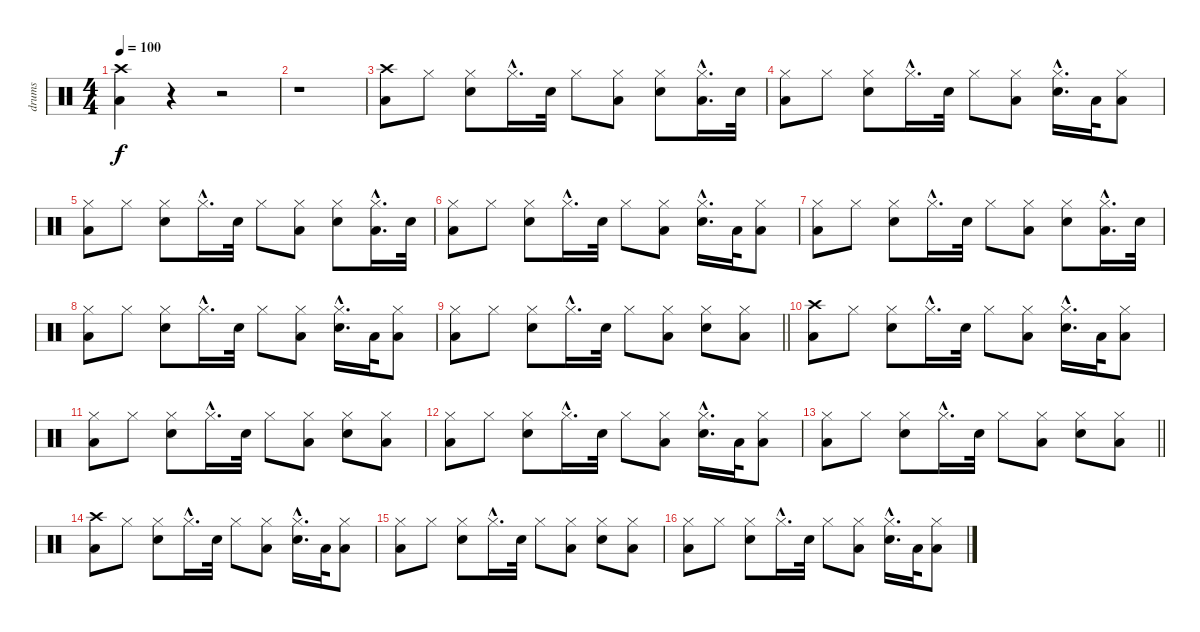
\track ("drums" "drums") {instrument percussion}
\staff {score}
\articulation defaults
\ts (4 4)
\tempo 100
\clef neutral
\ks c
("Crash high (hit)" "Low Floor Tom (hit)").4{dy f} r.4 r.2 |
r.1 |
("Crash high (hit)" "Low Floor Tom (hit)").8 "Hi-Hat (closed)".8 ("Hi-Hat (closed)" "Electric Snare (hit)").8 "Hi-Hat (closed)"{hac}.16{d} "Electric Snare (hit)".32 "Hi-Hat (closed)".8 ("Hi-Hat (closed)" "Low Floor Tom (hit)").8 ("Hi-Hat (closed)" "Electric Snare (hit)").8 ("Hi-Hat (closed)"{hac} "Low Floor Tom (hit)"{hac}).16{d} "Electric Snare (hit)".32 |
("Hi-Hat (closed)" "Low Floor Tom (hit)").8 "Hi-Hat (closed)".8 ("Hi-Hat (closed)" "Electric Snare (hit)").8 "Hi-Hat (closed)"{hac}.16{d} "Electric Snare (hit)".32 "Hi-Hat (closed)".8 ("Hi-Hat (closed)" "Low Floor Tom (hit)").8 ("Hi-Hat (closed)"{hac} "Electric Snare (hit)"{hac}).16{d} "Low Floor Tom (hit)".32 ("Hi-Hat (closed)" "Low Floor Tom (hit)").8 |
("Hi-Hat (closed)" "Low Floor Tom (hit)").8 "Hi-Hat (closed)".8 ("Hi-Hat (closed)" "Electric Snare (hit)").8 "Hi-Hat (closed)"{hac}.16{d} "Electric Snare (hit)".32 "Hi-Hat (closed)".8 ("Hi-Hat (closed)" "Low Floor Tom (hit)").8 ("Hi-Hat (closed)" "Electric Snare (hit)").8 ("Hi-Hat (closed)"{hac} "Low Floor Tom (hit)"{hac}).16{d} "Electric Snare (hit)".32 |
("Hi-Hat (closed)" "Low Floor Tom (hit)").8 "Hi-Hat (closed)".8 ("Hi-Hat (closed)" "Electric Snare (hit)").8 "Hi-Hat (closed)"{hac}.16{d} "Electric Snare (hit)".32 "Hi-Hat (closed)".8 ("Hi-Hat (closed)" "Low Floor Tom (hit)").8 ("Hi-Hat (closed)"{hac} "Electric Snare (hit)"{hac}).16{d} "Low Floor Tom (hit)".32 ("Hi-Hat (closed)" "Low Floor Tom (hit)").8 |
("Hi-Hat (closed)" "Low Floor Tom (hit)").8 "Hi-Hat (closed)".8 ("Hi-Hat (closed)" "Electric Snare (hit)").8 "Hi-Hat (closed)"{hac}.16{d} "Electric Snare (hit)".32 "Hi-Hat (closed)".8 ("Hi-Hat (closed)" "Low Floor Tom (hit)").8 ("Hi-Hat (closed)" "Electric Snare (hit)").8 ("Hi-Hat (closed)"{hac} "Low Floor Tom (hit)"{hac}).16{d} "Electric Snare (hit)".32 |
("Hi-Hat (closed)" "Low Floor Tom (hit)").8 "Hi-Hat (closed)".8 ("Hi-Hat (closed)" "Electric Snare (hit)").8 "Hi-Hat (closed)"{hac}.16{d} "Electric Snare (hit)".32 "Hi-Hat (closed)".8 ("Hi-Hat (closed)" "Low Floor Tom (hit)").8 ("Hi-Hat (closed)"{hac} "Electric Snare (hit)"{hac}).16{d} "Low Floor Tom (hit)".32 ("Hi-Hat (closed)" "Low Floor Tom (hit)").8 |
\barLineRight lightlight
("Hi-Hat (closed)" "Low Floor Tom (hit)").8 "Hi-Hat (closed)".8 ("Hi-Hat (closed)" "Electric Snare (hit)").8 "Hi-Hat (closed)"{hac}.16{d} "Electric Snare (hit)".32 "Hi-Hat (closed)".8 ("Hi-Hat (closed)" "Low Floor Tom (hit)").8 ("Hi-Hat (closed)" "Electric Snare (hit)").8 ("Hi-Hat (closed)" "Low Floor Tom (hit)").8 |
("Crash high (hit)" "Low Floor Tom (hit)").8 "Hi-Hat (closed)".8 ("Hi-Hat (closed)" "Electric Snare (hit)").8 "Hi-Hat (closed)"{hac}.16{d} "Electric Snare (hit)".32 "Hi-Hat (closed)".8 ("Hi-Hat (closed)" "Low Floor Tom (hit)").8 ("Hi-Hat (closed)"{hac} "Electric Snare (hit)"{hac}).16{d} "Low Floor Tom (hit)".32 ("Hi-Hat (closed)" "Low Floor Tom (hit)").8 |
("Hi-Hat (closed)" "Low Floor Tom (hit)").8 "Hi-Hat (closed)".8 ("Hi-Hat (closed)" "Electric Snare (hit)").8 "Hi-Hat (closed)"{hac}.16{d} "Electric Snare (hit)".32 "Hi-Hat (closed)".8 ("Hi-Hat (closed)" "Low Floor Tom (hit)").8 ("Hi-Hat (closed)" "Electric Snare (hit)").8 ("Hi-Hat (closed)" "Low Floor Tom (hit)").8 |
("Hi-Hat (closed)" "Low Floor Tom (hit)").8 "Hi-Hat (closed)".8 ("Hi-Hat (closed)" "Electric Snare (hit)").8 "Hi-Hat (closed)"{hac}.16{d} "Electric Snare (hit)".32 "Hi-Hat (closed)".8 ("Hi-Hat (closed)" "Low Floor Tom (hit)").8 ("Hi-Hat (closed)"{hac} "Electric Snare (hit)"{hac}).16{d} "Low Floor Tom (hit)".32 ("Hi-Hat (closed)" "Low Floor Tom (hit)").8 |
\barLineRight lightlight
("Hi-Hat (closed)" "Low Floor Tom (hit)").8 "Hi-Hat (closed)".8 ("Hi-Hat (closed)" "Electric Snare (hit)").8 "Hi-Hat (closed)"{hac}.16{d} "Electric Snare (hit)".32 "Hi-Hat (closed)".8 ("Hi-Hat (closed)" "Low Floor Tom (hit)").8 ("Hi-Hat (closed)" "Electric Snare (hit)").8 ("Hi-Hat (closed)" "Low Floor Tom (hit)").8 |
("Crash high (hit)" "Low Floor Tom (hit)").8 "Hi-Hat (closed)".8 ("Hi-Hat (closed)" "Electric Snare (hit)").8 "Hi-Hat (closed)"{hac}.16{d} "Electric Snare (hit)".32 "Hi-Hat (closed)".8 ("Hi-Hat (closed)" "Low Floor Tom (hit)").8 ("Hi-Hat (closed)"{hac} "Electric Snare (hit)"{hac}).16{d} "Low Floor Tom (hit)".32 ("Hi-Hat (closed)" "Low Floor Tom (hit)").8 |
("Hi-Hat (closed)" "Low Floor Tom (hit)").8 "Hi-Hat (closed)".8 ("Hi-Hat (closed)" "Electric Snare (hit)").8 "Hi-Hat (closed)"{hac}.16{d} "Electric Snare (hit)".32 "Hi-Hat (closed)".8 ("Hi-Hat (closed)" "Low Floor Tom (hit)").8 ("Hi-Hat (closed)" "Electric Snare (hit)").8 ("Hi-Hat (closed)" "Low Floor Tom (hit)").8 |
("Hi-Hat (closed)" "Low Floor Tom (hit)").8 "Hi-Hat (closed)".8 ("Hi-Hat (closed)" "Electric Snare (hit)").8 "Hi-Hat (closed)"{hac}.16{d} "Electric Snare (hit)".32 "Hi-Hat (closed)".8 ("Hi-Hat (closed)" "Low Floor Tom (hit)").8 ("Hi-Hat (closed)"{hac} "Electric Snare (hit)"{hac}).16{d} "Low Floor Tom (hit)".32 ("Hi-Hat (closed)" "Low Floor Tom (hit)").8
